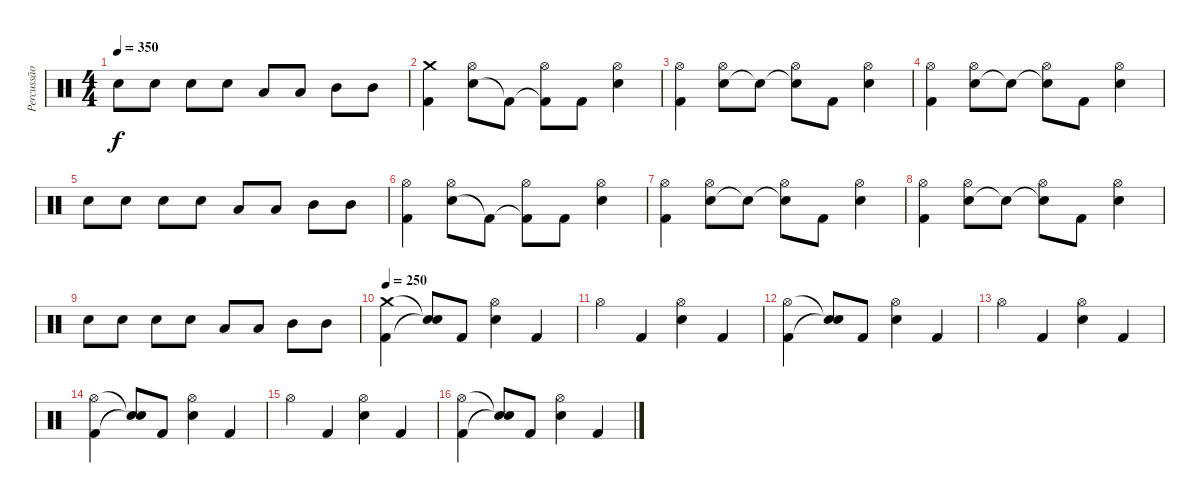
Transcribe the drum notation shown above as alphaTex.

\track ("Percussão" "Percussão") {instrument percussion}
\staff {score}
\articulation defaults
\ts (4 4)
\tempo 350
\clef neutral
\ks c "Electric Snare (hit)".8{dy f} "Electric Snare (hit)".8 "Electric Snare (hit)".8 "Electric Snare (hit)".8 "Low Tom (hit)".8 "Low Tom (hit)".8 "Mid Tom (hit)".8 "Mid Tom (hit)".8
|
("Kick (hit) 2" "Crash medium (hit)").4{volume 13} ("Electric Snare (hit)" "Hi-Hat (open)").8 "Kick (hit) 2"{t}.8 ("Kick (hit) 2"{t} "Hi-Hat (open)").8 "Kick (hit) 2".8 ("Electric Snare (hit)" "Hi-Hat (open)").4 |
("Kick (hit) 2" "Hi-Hat (open)").4 ("Electric Snare (hit)" "Hi-Hat (open)").8 "Snare (hit)"{t}.8 ("Snare (hit)"{t} "Hi-Hat (open)").8 "Kick (hit) 2".8 ("Electric Snare (hit)" "Hi-Hat (open)").4 |
("Kick (hit) 2" "Hi-Hat (open)").4 ("Electric Snare (hit)" "Hi-Hat (open)").8 "Snare (hit)"{t}.8 ("Snare (hit)"{t} "Hi-Hat (open)").8 "Kick (hit) 2".8 ("Electric Snare (hit)" "Hi-Hat (open)").4 |
"Electric Snare (hit)".8 "Electric Snare (hit)".8 "Electric Snare (hit)".8 "Electric Snare (hit)".8 "Low Tom (hit)".8 "Low Tom (hit)".8 "Mid Tom (hit)".8 "Mid Tom (hit)".8 |
("Kick (hit) 2" "Hi-Hat (open)").4 ("Electric Snare (hit)" "Hi-Hat (open)").8 "Kick (hit) 2"{t}.8 ("Kick (hit) 2"{t} "Hi-Hat (open)").8 "Kick (hit) 2".8 ("Electric Snare (hit)" "Hi-Hat (open)").4 |
("Kick (hit) 2" "Hi-Hat (open)").4 ("Electric Snare (hit)" "Hi-Hat (open)").8 "Snare (hit)"{t}.8 ("Snare (hit)"{t} "Hi-Hat (open)").8 "Kick (hit) 2".8 ("Electric Snare (hit)" "Hi-Hat (open)").4 |
("Kick (hit) 2" "Hi-Hat (open)").4 ("Electric Snare (hit)" "Hi-Hat (open)").8 "Snare (hit)"{t}.8 ("Snare (hit)"{t} "Hi-Hat (open)").8 "Kick (hit) 2".8 ("Electric Snare (hit)" "Hi-Hat (open)").4 |
"Electric Snare (hit)".8 "Electric Snare (hit)".8 "Electric Snare (hit)".8 "Electric Snare (hit)".8 "Low Tom (hit)".8 "Low Tom (hit)".8 "Mid Tom (hit)".8 "Mid Tom (hit)".8 |
\tempo 250
("Kick (hit) 2" "Crash medium (hit)").4 ("Snare (hit)"{t} "Snare (hit)"{t}).8 "Kick (hit) 2".8 ("Electric Snare (hit)" "Hi-Hat (open)").4 "Kick (hit) 2".4 |
"Hi-Hat (open)".4 "Kick (hit) 2".4 ("Hi-Hat (open)" "Electric Snare (hit)").4 "Kick (hit) 2".4 |
("Kick (hit) 2" "Hi-Hat (open)").4 ("Snare (hit)"{t} "Snare (hit)"{t}).8 "Kick (hit) 2".8 ("Electric Snare (hit)" "Hi-Hat (open)").4 "Kick (hit) 2".4 |
"Hi-Hat (open)".4 "Kick (hit) 2".4 ("Hi-Hat (open)" "Electric Snare (hit)").4 "Kick (hit) 2".4 |
("Kick (hit) 2" "Hi-Hat (open)").4 ("Snare (hit)"{t} "Snare (hit)"{t}).8 "Kick (hit) 2".8 ("Electric Snare (hit)" "Hi-Hat (open)").4 "Kick (hit) 2".4 |
"Hi-Hat (open)".4 "Kick (hit) 2".4 ("Hi-Hat (open)" "Electric Snare (hit)").4 "Kick (hit) 2".4 |
("Kick (hit) 2" "Hi-Hat (open)").4 ("Snare (hit)"{t} "Snare (hit)"{t}).8 "Kick (hit) 2".8 ("Electric Snare (hit)" "Hi-Hat (open)").4 "Kick (hit) 2".4
